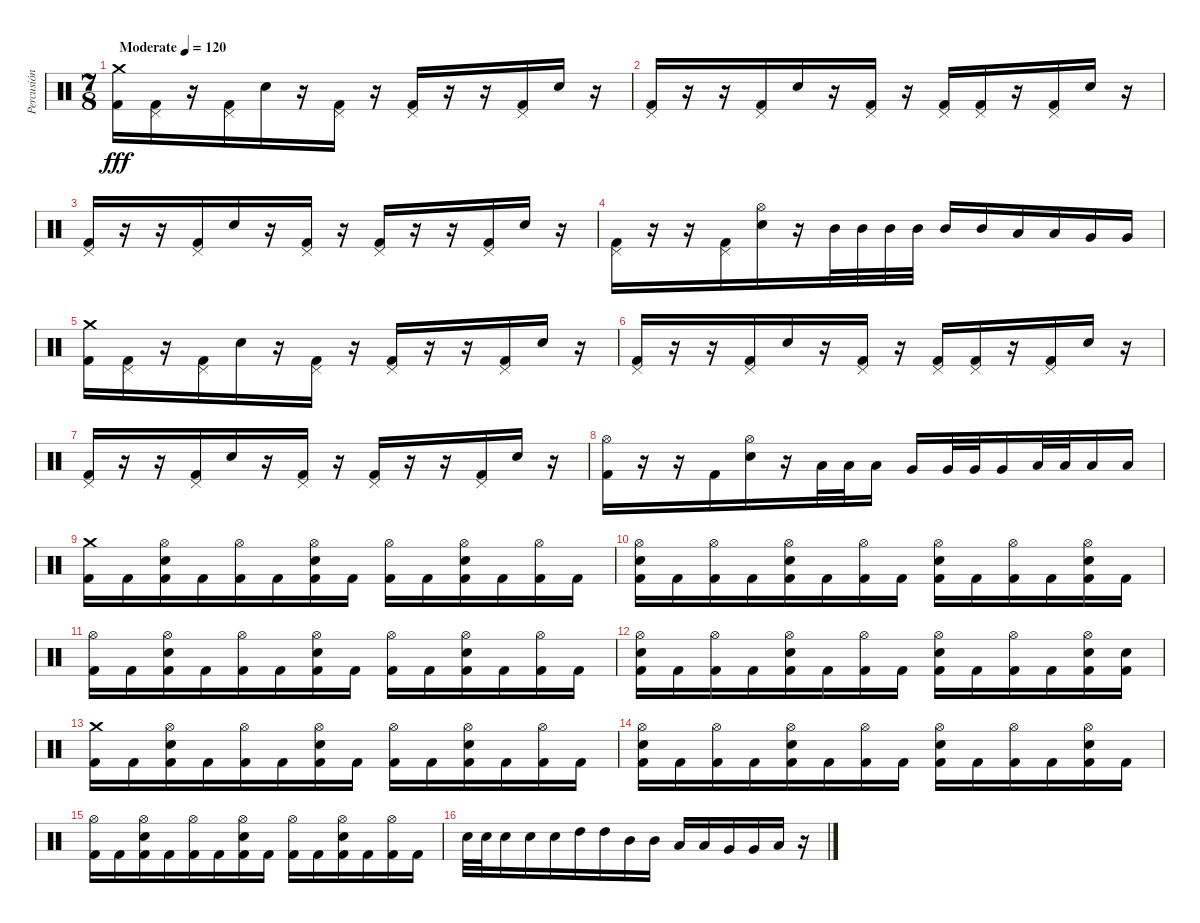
\track ("Percusión" "Percusión") {instrument percussion}
\staff {score}
\articulation defaults
\ts (7 8)
\tempo (120 "Moderate")
\clef neutral
\ks c
("Crash medium (hit)" "Kick (hit) 2").16{dy fff} ("Pedal Hi-Hat (hit)" "Kick (hit) 2").16 r.16 ("Pedal Hi-Hat (hit)" "Kick (hit) 2").16 "Electric Snare (hit)".16 r.16 ("Pedal Hi-Hat (hit)" "Kick (hit) 2").16 r.16 ("Pedal Hi-Hat (hit)" "Kick (hit) 2").16 r.16 r.16 ("Pedal Hi-Hat (hit)" "Kick (hit) 2").16 "Electric Snare (hit)".16 r.16 |
("Pedal Hi-Hat (hit)" "Kick (hit) 2").16 r.16 r.16 ("Pedal Hi-Hat (hit)" "Kick (hit) 2").16 "Electric Snare (hit)".16 r.16 ("Pedal Hi-Hat (hit)" "Kick (hit) 2").16 r.16 ("Pedal Hi-Hat (hit)" "Kick (hit) 2").16 ("Pedal Hi-Hat (hit)" "Kick (hit) 2").16 r.16 ("Pedal Hi-Hat (hit)" "Kick (hit) 2").16 "Electric Snare (hit)".16 r.16 |
("Pedal Hi-Hat (hit)" "Kick (hit) 2").16 r.16 r.16 ("Pedal Hi-Hat (hit)" "Kick (hit) 2").16 "Electric Snare (hit)".16 r.16 ("Pedal Hi-Hat (hit)" "Kick (hit) 2").16 r.16 ("Pedal Hi-Hat (hit)" "Kick (hit) 2").16 r.16 r.16 ("Pedal Hi-Hat (hit)" "Kick (hit) 2").16 "Electric Snare (hit)".16 r.16 |
("Pedal Hi-Hat (hit)" "Kick (hit) 2").16 r.16 r.16 ("Pedal Hi-Hat (hit)" "Kick (hit) 2").16 ("Hi-Hat (open)" "Electric Snare (hit)").16 r.16 "Mid Tom (hit)".32 "Mid Tom (hit)".32 "Mid Tom (hit)".32 "Mid Tom (hit)".32 "Mid Tom (hit)".16 "Mid Tom (hit)".16 "Low Tom (hit)".16 "Low Tom (hit)".16 "Very Low Tom (hit)".16 "Very Low Tom (hit)".16 |
("Crash medium (hit)" "Kick (hit) 2").16 ("Pedal Hi-Hat (hit)" "Kick (hit) 2").16 r.16 ("Pedal Hi-Hat (hit)" "Kick (hit) 2").16 "Electric Snare (hit)".16 r.16 ("Pedal Hi-Hat (hit)" "Kick (hit) 2").16 r.16 ("Pedal Hi-Hat (hit)" "Kick (hit) 2").16 r.16 r.16 ("Pedal Hi-Hat (hit)" "Kick (hit) 2").16 "Electric Snare (hit)".16 r.16 |
("Pedal Hi-Hat (hit)" "Kick (hit) 2").16 r.16 r.16 ("Pedal Hi-Hat (hit)" "Kick (hit) 2").16 "Electric Snare (hit)".16 r.16 ("Pedal Hi-Hat (hit)" "Kick (hit) 2").16 r.16 ("Pedal Hi-Hat (hit)" "Kick (hit) 2").16 ("Pedal Hi-Hat (hit)" "Kick (hit) 2").16 r.16 ("Pedal Hi-Hat (hit)" "Kick (hit) 2").16 "Electric Snare (hit)".16 r.16 |
("Pedal Hi-Hat (hit)" "Kick (hit) 2").16 r.16 r.16 ("Pedal Hi-Hat (hit)" "Kick (hit) 2").16 "Electric Snare (hit)".16 r.16 ("Pedal Hi-Hat (hit)" "Kick (hit) 2").16 r.16 ("Pedal Hi-Hat (hit)" "Kick (hit) 2").16 r.16 r.16 ("Pedal Hi-Hat (hit)" "Kick (hit) 2").16 "Electric Snare (hit)".16 r.16 |
("Hi-Hat (open)" "Kick (hit) 2").16 r.16 r.16 "Kick (hit) 2".16 ("Hi-Hat (open)" "Electric Snare (hit)").16 r.16 "Low Tom (hit)".32 "Low Tom (hit)".32 "Low Tom (hit)".16 "Very Low Tom (hit)".16 "Very Low Tom (hit)".32 "Very Low Tom (hit)".32 "Very Low Tom (hit)".16 "Low Tom (hit)".32 "Low Tom (hit)".32 "Low Tom (hit)".16 "Low Tom (hit)".16 |
("Crash medium (hit)" "Kick (hit) 2").16 "Kick (hit) 2".16 ("Hi-Hat (open)" "Electric Snare (hit)" "Kick (hit) 2").16 "Kick (hit) 2".16 ("Hi-Hat (open)" "Kick (hit) 2").16 "Kick (hit) 2".16 ("Hi-Hat (open)" "Electric Snare (hit)" "Kick (hit) 2").16 "Kick (hit) 2".16 ("Hi-Hat (open)" "Kick (hit) 2").16 "Kick (hit) 2".16 ("Hi-Hat (open)" "Electric Snare (hit)" "Kick (hit) 2").16 "Kick (hit) 2".16 ("Hi-Hat (open)" "Kick (hit) 2").16 "Kick (hit) 2".16 |
("Hi-Hat (open)" "Electric Snare (hit)" "Kick (hit) 2").16 "Kick (hit) 2".16 ("Hi-Hat (open)" "Kick (hit) 2").16 "Kick (hit) 2".16 ("Hi-Hat (open)" "Electric Snare (hit)" "Kick (hit) 2").16 "Kick (hit) 2".16 ("Hi-Hat (open)" "Kick (hit) 2").16 "Kick (hit) 2".16 ("Hi-Hat (open)" "Electric Snare (hit)" "Kick (hit) 2").16 "Kick (hit) 2".16 ("Hi-Hat (open)" "Kick (hit) 2").16 "Kick (hit) 2".16 ("Hi-Hat (open)" "Electric Snare (hit)" "Kick (hit) 2").16 "Kick (hit) 2".16 |
("Hi-Hat (open)" "Kick (hit) 2").16 "Kick (hit) 2".16 ("Hi-Hat (open)" "Electric Snare (hit)" "Kick (hit) 2").16 "Kick (hit) 2".16 ("Hi-Hat (open)" "Kick (hit) 2").16 "Kick (hit) 2".16 ("Hi-Hat (open)" "Electric Snare (hit)" "Kick (hit) 2").16 "Kick (hit) 2".16 ("Hi-Hat (open)" "Kick (hit) 2").16 "Kick (hit) 2".16 ("Hi-Hat (open)" "Electric Snare (hit)" "Kick (hit) 2").16 "Kick (hit) 2".16 ("Hi-Hat (open)" "Kick (hit) 2").16 "Kick (hit) 2".16 |
("Hi-Hat (open)" "Electric Snare (hit)" "Kick (hit) 2").16 "Kick (hit) 2".16 ("Hi-Hat (open)" "Kick (hit) 2").16 "Kick (hit) 2".16 ("Hi-Hat (open)" "Electric Snare (hit)" "Kick (hit) 2").16 "Kick (hit) 2".16 ("Hi-Hat (open)" "Kick (hit) 2").16 "Kick (hit) 2".16 ("Hi-Hat (open)" "Electric Snare (hit)" "Kick (hit) 2").16 "Kick (hit) 2".16 ("Hi-Hat (open)" "Kick (hit) 2").16 "Kick (hit) 2".16 ("Hi-Hat (open)" "Electric Snare (hit)" "Kick (hit) 2").16 ("Electric Snare (hit)" "Kick (hit) 2").16 |
("Crash medium (hit)" "Kick (hit) 2").16 "Kick (hit) 2".16 ("Hi-Hat (open)" "Electric Snare (hit)" "Kick (hit) 2").16 "Kick (hit) 2".16 ("Hi-Hat (open)" "Kick (hit) 2").16 "Kick (hit) 2".16 ("Hi-Hat (open)" "Electric Snare (hit)" "Kick (hit) 2").16 "Kick (hit) 2".16 ("Hi-Hat (open)" "Kick (hit) 2").16 "Kick (hit) 2".16 ("Hi-Hat (open)" "Electric Snare (hit)" "Kick (hit) 2").16 "Kick (hit) 2".16 ("Hi-Hat (open)" "Kick (hit) 2").16 "Kick (hit) 2".16 |
("Hi-Hat (open)" "Electric Snare (hit)" "Kick (hit) 2").16 "Kick (hit) 2".16 ("Hi-Hat (open)" "Kick (hit) 2").16 "Kick (hit) 2".16 ("Hi-Hat (open)" "Electric Snare (hit)" "Kick (hit) 2").16 "Kick (hit) 2".16 ("Hi-Hat (open)" "Kick (hit) 2").16 "Kick (hit) 2".16 ("Hi-Hat (open)" "Electric Snare (hit)" "Kick (hit) 2").16 "Kick (hit) 2".16 ("Hi-Hat (open)" "Kick (hit) 2").16 "Kick (hit) 2".16 ("Hi-Hat (open)" "Electric Snare (hit)" "Kick (hit) 2").16 "Kick (hit) 2".16 |
("Hi-Hat (open)" "Kick (hit) 2").16 "Kick (hit) 2".16 ("Hi-Hat (open)" "Electric Snare (hit)" "Kick (hit) 2").16 "Kick (hit) 2".16 ("Hi-Hat (open)" "Kick (hit) 2").16 "Kick (hit) 2".16 ("Hi-Hat (open)" "Electric Snare (hit)" "Kick (hit) 2").16 "Kick (hit) 2".16 ("Hi-Hat (open)" "Kick (hit) 2").16 "Kick (hit) 2".16 ("Hi-Hat (open)" "Electric Snare (hit)" "Kick (hit) 2").16 "Kick (hit) 2".16 ("Hi-Hat (open)" "Kick (hit) 2").16 "Kick (hit) 2".16 |
"Electric Snare (hit)".32 "Electric Snare (hit)".32 "Electric Snare (hit)".16 "Electric Snare (hit)".16 "Electric Snare (hit)".16 "High Tom (hit)".16 "High Tom (hit)".16 "Mid Tom (hit)".16 "Mid Tom (hit)".16 "Low Tom (hit)".16 "Low Tom (hit)".16 "Very Low Tom (hit)".16 "Very Low Tom (hit)".16 "Low Tom (hit)".16 r.16
